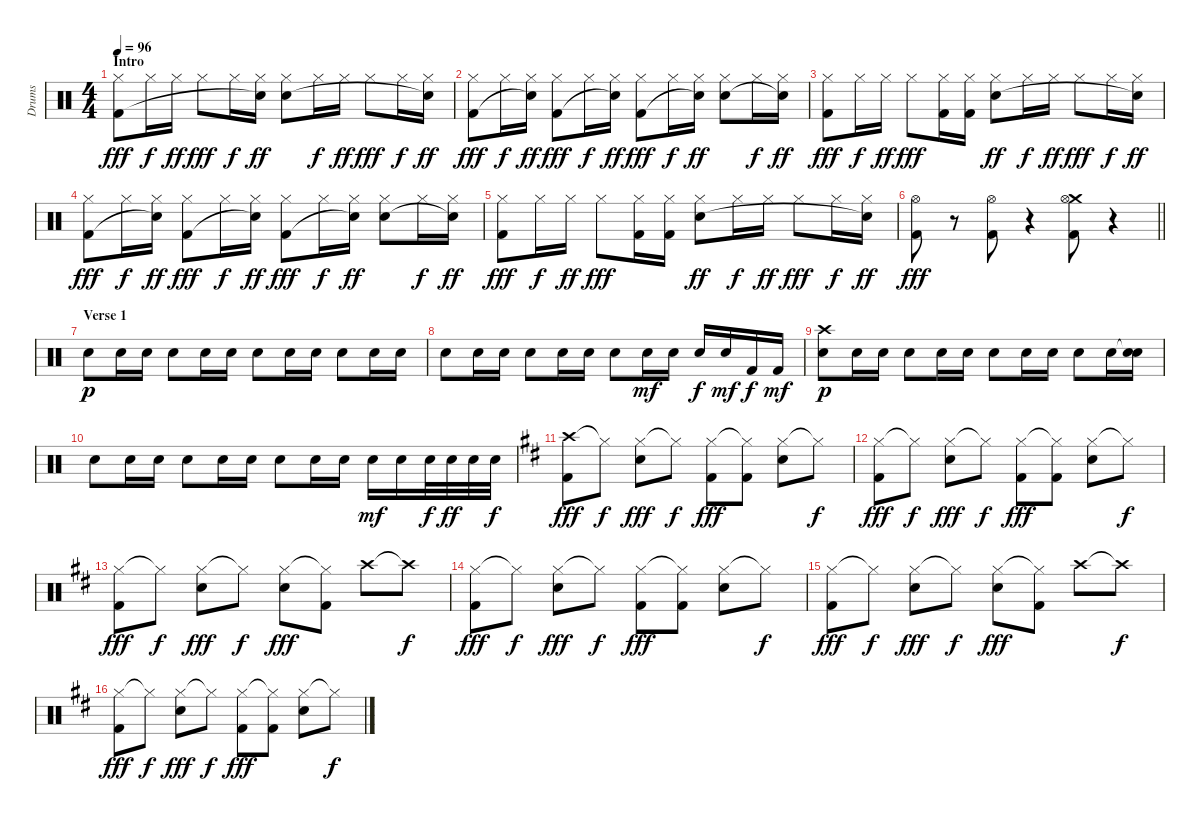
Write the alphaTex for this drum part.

\track ("Drums" "Drums") {instrument percussion}
\staff {score}
\articulation defaults
\ts (4 4)
\section ("" "Intro")
\tempo 96
\clef neutral
\ks c
("Hi-Hat (closed)" "Kick (hit) 2").8{dy fff} "Hi-Hat (closed)".16{dy f} "Hi-Hat (closed)".16{dy ff} "Hi-Hat (closed)".8{dy fff} "Hi-Hat (closed)".16{dy f} ("Hi-Hat (closed)" "Snare (hit)"{t}).16{dy ff} ("Hi-Hat (closed)" "Snare (hit) 2").8 "Hi-Hat (closed)".16{dy f} "Hi-Hat (closed)".16{dy ff} "Hi-Hat (closed)".8{dy fff} "Hi-Hat (closed)".16{dy f} ("Hi-Hat (closed)" "Snare (hit)"{t}).16{dy ff} |
("Hi-Hat (closed)" "Kick (hit) 2").8{dy fff} "Hi-Hat (closed)".16{dy f} ("Hi-Hat (closed)" "Snare (hit)"{t}).16{dy ff} ("Hi-Hat (closed)" "Kick (hit) 2").8{dy fff} "Hi-Hat (closed)".16{dy f} ("Hi-Hat (closed)" "Snare (hit)"{t}).16{dy ff} ("Hi-Hat (closed)" "Kick (hit) 2").8{dy fff} "Hi-Hat (closed)".16{dy f} ("Hi-Hat (closed)" "Snare (hit)"{t}).16{dy ff} ("Hi-Hat (closed)" "Snare (hit) 2").8 "Hi-Hat (closed)".16{dy f} ("Hi-Hat (closed)" "Snare (hit)"{t}).16{dy ff} |
("Hi-Hat (closed)" "Kick (hit) 2").8{dy fff} "Hi-Hat (closed)".16{dy f} "Hi-Hat (closed)".16{dy ff} "Hi-Hat (closed)".8{dy fff} ("Hi-Hat (closed)" "Kick (hit) 2").16 ("Hi-Hat (closed)" "Kick (hit) 2").16 ("Hi-Hat (closed)" "Snare (hit) 2").8{dy ff} "Hi-Hat (closed)".16{dy f} "Hi-Hat (closed)".16{dy ff} "Hi-Hat (closed)".8{dy fff} "Hi-Hat (closed)".16{dy f} ("Hi-Hat (closed)" "Snare (hit)"{t}).16{dy ff} |
("Hi-Hat (closed)" "Kick (hit) 2").8{dy fff} "Hi-Hat (closed)".16{dy f} ("Hi-Hat (closed)" "Snare (hit)"{t}).16{dy ff} ("Hi-Hat (closed)" "Kick (hit) 2").8{dy fff} "Hi-Hat (closed)".16{dy f} ("Hi-Hat (closed)" "Snare (hit)"{t}).16{dy ff} ("Hi-Hat (closed)" "Kick (hit) 2").8{dy fff} "Hi-Hat (closed)".16{dy f} ("Hi-Hat (closed)" "Snare (hit)"{t}).16{dy ff} ("Hi-Hat (closed)" "Snare (hit) 2").8 "Hi-Hat (closed)".16{dy f} ("Hi-Hat (closed)" "Snare (hit)"{t}).16{dy ff} |
("Hi-Hat (closed)" "Kick (hit) 2").8{dy fff} "Hi-Hat (closed)".16{dy f} "Hi-Hat (closed)".16{dy ff} "Hi-Hat (closed)".8{dy fff} ("Hi-Hat (closed)" "Kick (hit) 2").16 ("Hi-Hat (closed)" "Kick (hit) 2").16 ("Hi-Hat (closed)" "Snare (hit) 2").8{dy ff} "Hi-Hat (closed)".16{dy f} "Hi-Hat (closed)".16{dy ff} "Hi-Hat (closed)".8{dy fff} "Hi-Hat (closed)".16{dy f} ("Hi-Hat (closed)" "Snare (hit)"{t}).16{dy ff} |
\barLineRight lightlight
("Hi-Hat (open)" "Kick (hit) 2").8{dy fff} r.8 ("Hi-Hat (open)" "Kick (hit) 2").8 r.4 ("Crash medium (hit)" "Hi-Hat (open)" "Kick (hit) 2").8 r.4 |
\section ("" "Verse 1")
"Snare (hit) 2".8{dy p} "Snare (hit) 2".16 "Snare (hit) 2".16 "Snare (hit) 2".8 "Snare (hit) 2".16 "Snare (hit) 2".16 "Snare (hit) 2".8 "Snare (hit) 2".16 "Snare (hit) 2".16 "Snare (hit) 2".8 "Snare (hit) 2".16 "Snare (hit) 2".16 |
"Snare (hit) 2".8 "Snare (hit) 2".16 "Snare (hit) 2".16 "Snare (hit) 2".8 "Snare (hit) 2".16 "Snare (hit) 2".16 "Snare (hit) 2".8 "Snare (hit) 2".16{dy mf} "Snare (hit) 2".16 "Snare (hit) 2".16{dy f} "Snare (hit) 2".16{dy mf} "Kick (hit) 2".16{dy f} "Kick (hit) 2".16{dy mf} |
("Crash high (hit)" "Snare (hit) 2").8{dy p} "Snare (hit) 2".16 "Snare (hit) 2".16 "Snare (hit) 2".8 "Snare (hit) 2".16 "Snare (hit) 2".16 "Snare (hit) 2".8 "Snare (hit) 2".16 "Snare (hit) 2".16 "Snare (hit) 2".8 "Snare (hit) 2".16 ("Snare (hit)"{t} "Snare (hit) 2").16 |
"Snare (hit) 2".8 "Snare (hit) 2".16 "Snare (hit) 2".16 "Snare (hit) 2".8 "Snare (hit) 2".16 "Snare (hit) 2".16 "Snare (hit) 2".8 "Snare (hit) 2".16 "Snare (hit) 2".16 "Snare (hit) 2".16{dy mf} "Snare (hit) 2".16 "Snare (hit) 2".32{dy f} "Snare (hit) 2".32{dy ff} "Snare (hit) 2".32 "Snare (hit) 2".32{dy f} |
\ks d
("Crash high (hit)" "Kick (hit) 2").8{dy fff} "Hi-Hat (closed)"{t}.8{dy f} ("Hi-Hat (closed)" "Snare (hit) 2").8{dy fff} "Hi-Hat (closed)"{t}.8{dy f} ("Hi-Hat (closed)" "Kick (hit) 2").8{dy fff} ("Hi-Hat (closed)"{t} "Kick (hit) 2").8 ("Hi-Hat (closed)" "Snare (hit) 2").8 "Hi-Hat (closed)"{t}.8{dy f} |
("Hi-Hat (closed)" "Kick (hit) 2").8{dy fff} "Hi-Hat (closed)"{t}.8{dy f} ("Hi-Hat (closed)" "Snare (hit) 2").8{dy fff} "Hi-Hat (closed)"{t}.8{dy f} ("Hi-Hat (closed)" "Kick (hit) 2").8{dy fff} ("Hi-Hat (closed)"{t} "Kick (hit) 2").8 ("Hi-Hat (closed)" "Snare (hit) 2").8 "Hi-Hat (closed)"{t}.8{dy f} |
("Hi-Hat (closed)" "Kick (hit) 2").8{dy fff} "Hi-Hat (closed)"{t}.8{dy f} ("Hi-Hat (closed)" "Snare (hit) 2").8{dy fff} "Hi-Hat (closed)"{t}.8{dy f} ("Hi-Hat (closed)" "Snare (hit) 2").8{dy fff} ("Hi-Hat (closed)"{t} "Kick (hit) 2").8 "Crash high (hit)".8 "Crash high (hit)"{t}.8{dy f} |
("Hi-Hat (closed)" "Kick (hit) 2").8{dy fff} "Hi-Hat (closed)"{t}.8{dy f} ("Hi-Hat (closed)" "Snare (hit) 2").8{dy fff} "Hi-Hat (closed)"{t}.8{dy f} ("Hi-Hat (closed)" "Kick (hit) 2").8{dy fff} ("Hi-Hat (closed)"{t} "Kick (hit) 2").8 ("Hi-Hat (closed)" "Snare (hit) 2").8 "Hi-Hat (closed)"{t}.8{dy f} |
("Hi-Hat (closed)" "Kick (hit) 2").8{dy fff} "Hi-Hat (closed)"{t}.8{dy f} ("Hi-Hat (closed)" "Snare (hit) 2").8{dy fff} "Hi-Hat (closed)"{t}.8{dy f} ("Hi-Hat (closed)" "Snare (hit) 2").8{dy fff} ("Hi-Hat (closed)"{t} "Kick (hit) 2").8 "Crash high (hit)".8 "Crash high (hit)"{t}.8{dy f} |
("Hi-Hat (closed)" "Kick (hit) 2").8{dy fff} "Hi-Hat (closed)"{t}.8{dy f} ("Hi-Hat (closed)" "Snare (hit) 2").8{dy fff} "Hi-Hat (closed)"{t}.8{dy f} ("Hi-Hat (closed)" "Kick (hit) 2").8{dy fff} ("Hi-Hat (closed)"{t} "Kick (hit) 2").8 ("Hi-Hat (closed)" "Snare (hit) 2").8 "Hi-Hat (closed)"{t}.8{dy f}
